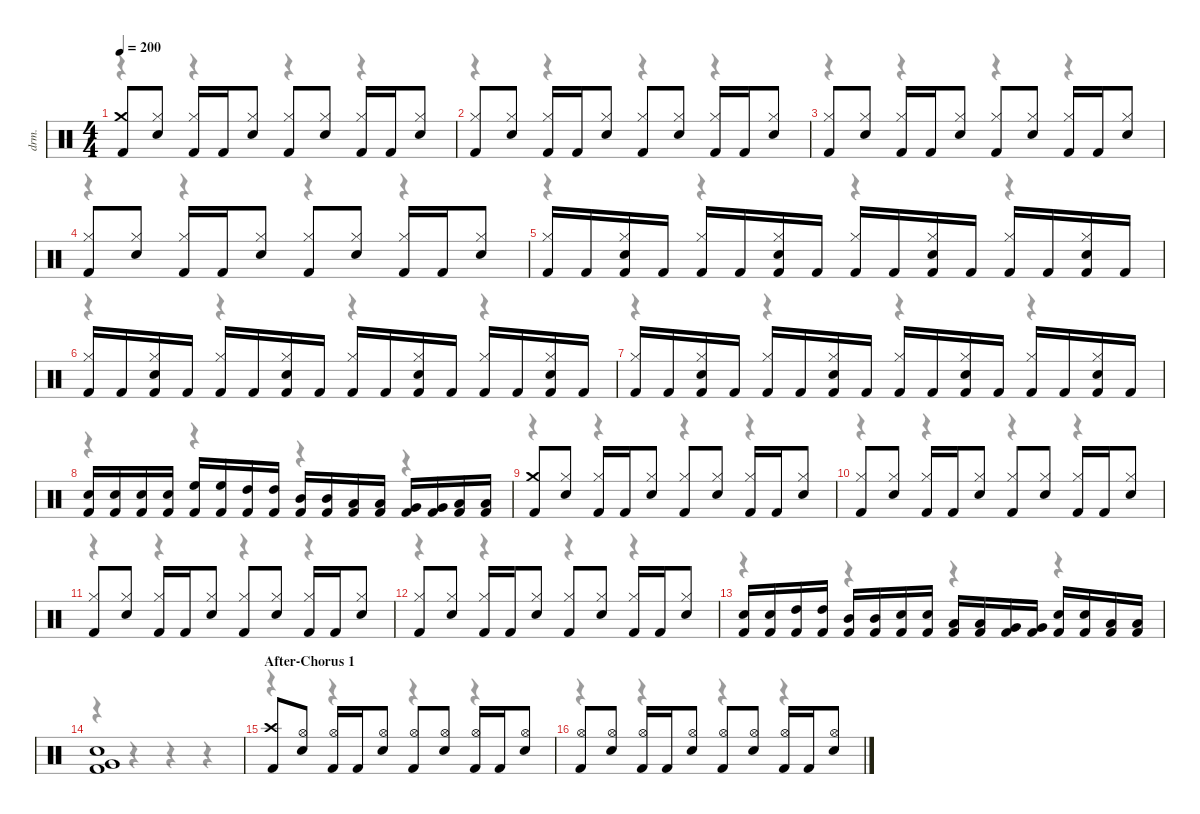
\defaultSystemsLayout 4
\hideDynamics
\bracketExtendMode nobrackets
\otherSystemsTrackNameOrientation horizontal
\track ("David Mackintosh (Drums)" "drm.") {instrument percussion}
\staff {score}
\articulation defaults
\voice
\ts (4 4)
\tempo 200
\clef neutral
\ks c
("Kick (hit) 2" "Crash medium (hit)").8{dy f} ("Snare (hit) 2" "Hi-Hat (closed)").8 ("Kick (hit) 2" "Hi-Hat (closed)").16 "Kick (hit) 2".16 ("Snare (hit) 2" "Hi-Hat (closed)").8 ("Kick (hit) 2" "Hi-Hat (closed)").8 ("Snare (hit) 2" "Hi-Hat (closed)").8 ("Kick (hit) 2" "Hi-Hat (closed)").16 "Kick (hit) 2".16 ("Snare (hit) 2" "Hi-Hat (closed)").8 |
("Kick (hit) 2" "Hi-Hat (closed)").8 ("Snare (hit) 2" "Hi-Hat (closed)").8 ("Kick (hit) 2" "Hi-Hat (closed)").16 "Kick (hit) 2".16 ("Snare (hit) 2" "Hi-Hat (closed)").8 ("Kick (hit) 2" "Hi-Hat (closed)").8 ("Snare (hit) 2" "Hi-Hat (closed)").8 ("Kick (hit) 2" "Hi-Hat (closed)").16 "Kick (hit) 2".16 ("Snare (hit) 2" "Hi-Hat (closed)").8 |
("Kick (hit) 2" "Hi-Hat (closed)").8 ("Snare (hit) 2" "Hi-Hat (closed)").8 ("Kick (hit) 2" "Hi-Hat (closed)").16 "Kick (hit) 2".16 ("Snare (hit) 2" "Hi-Hat (closed)").8 ("Kick (hit) 2" "Hi-Hat (closed)").8 ("Snare (hit) 2" "Hi-Hat (closed)").8 ("Kick (hit) 2" "Hi-Hat (closed)").16 "Kick (hit) 2".16 ("Snare (hit) 2" "Hi-Hat (closed)").8 |
("Kick (hit) 2" "Hi-Hat (closed)").8 ("Snare (hit) 2" "Hi-Hat (closed)").8 ("Kick (hit) 2" "Hi-Hat (closed)").16 "Kick (hit) 2".16 ("Snare (hit) 2" "Hi-Hat (closed)").8 ("Kick (hit) 2" "Hi-Hat (closed)").8 ("Snare (hit) 2" "Hi-Hat (closed)").8 ("Kick (hit) 2" "Hi-Hat (closed)").16 "Kick (hit) 2".16 ("Snare (hit) 2" "Hi-Hat (closed)").8 |
("Kick (hit) 2" "Hi-Hat (closed)").16 "Kick (hit) 2".16 ("Kick (hit) 2" "Snare (hit) 2" "Hi-Hat (closed)").16 "Kick (hit) 2".16 ("Kick (hit) 2" "Hi-Hat (closed)").16 "Kick (hit) 2".16 ("Kick (hit) 2" "Snare (hit) 2" "Hi-Hat (closed)").16 "Kick (hit) 2".16 ("Kick (hit) 2" "Hi-Hat (closed)").16 "Kick (hit) 2".16 ("Kick (hit) 2" "Snare (hit) 2" "Hi-Hat (closed)").16 "Kick (hit) 2".16 ("Kick (hit) 2" "Hi-Hat (closed)").16 "Kick (hit) 2".16 ("Kick (hit) 2" "Snare (hit) 2" "Hi-Hat (closed)").16 "Kick (hit) 2".16 |
("Kick (hit) 2" "Hi-Hat (closed)").16 "Kick (hit) 2".16 ("Kick (hit) 2" "Snare (hit) 2" "Hi-Hat (closed)").16 "Kick (hit) 2".16 ("Kick (hit) 2" "Hi-Hat (closed)").16 "Kick (hit) 2".16 ("Kick (hit) 2" "Snare (hit) 2" "Hi-Hat (closed)").16 "Kick (hit) 2".16 ("Kick (hit) 2" "Hi-Hat (closed)").16 "Kick (hit) 2".16 ("Kick (hit) 2" "Snare (hit) 2" "Hi-Hat (closed)").16 "Kick (hit) 2".16 ("Kick (hit) 2" "Hi-Hat (closed)").16 "Kick (hit) 2".16 ("Kick (hit) 2" "Snare (hit) 2" "Hi-Hat (closed)").16 "Kick (hit) 2".16 |
("Kick (hit) 2" "Hi-Hat (closed)").16 "Kick (hit) 2".16 ("Kick (hit) 2" "Snare (hit) 2" "Hi-Hat (closed)").16 "Kick (hit) 2".16 ("Kick (hit) 2" "Hi-Hat (closed)").16 "Kick (hit) 2".16 ("Kick (hit) 2" "Snare (hit) 2" "Hi-Hat (closed)").16 "Kick (hit) 2".16 ("Kick (hit) 2" "Hi-Hat (closed)").16 "Kick (hit) 2".16 ("Kick (hit) 2" "Snare (hit) 2" "Hi-Hat (closed)").16 "Kick (hit) 2".16 ("Kick (hit) 2" "Hi-Hat (closed)").16 "Kick (hit) 2".16 ("Kick (hit) 2" "Snare (hit) 2" "Hi-Hat (closed)").16 "Kick (hit) 2".16 |
("Kick (hit) 2" "Snare (hit) 2").16 ("Kick (hit) 2" "Snare (hit) 2").16 ("Kick (hit) 2" "Snare (hit) 2").16 ("Kick (hit) 2" "Snare (hit) 2").16 ("Kick (hit) 2" "High Floor Tom (hit)").16 ("Kick (hit) 2" "High Floor Tom (hit)").16 ("Kick (hit) 2" "High Tom (hit)").16 ("Kick (hit) 2" "High Tom (hit)").16 ("Kick (hit) 2" "Mid Tom (hit)").16 ("Kick (hit) 2" "Mid Tom (hit)").16 ("Kick (hit) 2" "Low Tom (hit)").16 ("Kick (hit) 2" "Low Tom (hit)").16 ("Kick (hit) 2" "Very Low Tom (hit)").16 ("Kick (hit) 2" "Very Low Tom (hit)").16 ("Kick (hit) 2" "Low Floor Tom (hit)").16 ("Kick (hit) 2" "Low Floor Tom (hit)").16 |
("Kick (hit) 2" "Crash medium (hit)").8 ("Snare (hit) 2" "Hi-Hat (closed)").8 ("Kick (hit) 2" "Hi-Hat (closed)").16 "Kick (hit) 2".16 ("Snare (hit) 2" "Hi-Hat (closed)").8 ("Kick (hit) 2" "Hi-Hat (closed)").8 ("Snare (hit) 2" "Hi-Hat (closed)").8 ("Kick (hit) 2" "Hi-Hat (closed)").16 "Kick (hit) 2".16 ("Snare (hit) 2" "Hi-Hat (closed)").8 |
("Kick (hit) 2" "Hi-Hat (closed)").8 ("Snare (hit) 2" "Hi-Hat (closed)").8 ("Kick (hit) 2" "Hi-Hat (closed)").16 "Kick (hit) 2".16 ("Snare (hit) 2" "Hi-Hat (closed)").8 ("Kick (hit) 2" "Hi-Hat (closed)").8 ("Snare (hit) 2" "Hi-Hat (closed)").8 ("Kick (hit) 2" "Hi-Hat (closed)").16 "Kick (hit) 2".16 ("Snare (hit) 2" "Hi-Hat (closed)").8 |
("Kick (hit) 2" "Hi-Hat (closed)").8 ("Snare (hit) 2" "Hi-Hat (closed)").8 ("Kick (hit) 2" "Hi-Hat (closed)").16 "Kick (hit) 2".16 ("Snare (hit) 2" "Hi-Hat (closed)").8 ("Kick (hit) 2" "Hi-Hat (closed)").8 ("Snare (hit) 2" "Hi-Hat (closed)").8 ("Kick (hit) 2" "Hi-Hat (closed)").16 "Kick (hit) 2".16 ("Snare (hit) 2" "Hi-Hat (closed)").8 |
("Kick (hit) 2" "Hi-Hat (closed)").8 ("Snare (hit) 2" "Hi-Hat (closed)").8 ("Kick (hit) 2" "Hi-Hat (closed)").16 "Kick (hit) 2".16 ("Snare (hit) 2" "Hi-Hat (closed)").8 ("Kick (hit) 2" "Hi-Hat (closed)").8 ("Snare (hit) 2" "Hi-Hat (closed)").8 ("Kick (hit) 2" "Hi-Hat (closed)").16 "Kick (hit) 2".16 ("Snare (hit) 2" "Hi-Hat (closed)").8 |
("Kick (hit) 2" "Snare (hit) 2").16 ("Kick (hit) 2" "Snare (hit) 2").16 ("Kick (hit) 2" "High Tom (hit)").16 ("Kick (hit) 2" "High Tom (hit)").16 ("Kick (hit) 2" "Mid Tom (hit)").16 ("Kick (hit) 2" "Mid Tom (hit)").16 ("Kick (hit) 2" "Snare (hit) 2").16 ("Kick (hit) 2" "Snare (hit) 2").16 ("Kick (hit) 2" "Low Tom (hit)").16 ("Kick (hit) 2" "Low Tom (hit)").16 ("Kick (hit) 2" "Very Low Tom (hit)").16 ("Kick (hit) 2" "Very Low Tom (hit)").16 ("Kick (hit) 2" "Snare (hit) 2").16 ("Kick (hit) 2" "Snare (hit) 2").16 ("Kick (hit) 2" "Low Floor Tom (hit)").16 ("Kick (hit) 2" "Low Floor Tom (hit)").16 |
("Kick (hit) 2" "Snare (hit) 2" "Very Low Tom (hit)").1 |
\section ("" "After-Chorus 1")
("Kick (hit) 2" "Crash high (hit)").8 ("Snare (hit) 2" "Hi-Hat (open)").8 ("Kick (hit) 2" "Hi-Hat (open)").16 "Kick (hit) 2".16 ("Snare (hit) 2" "Hi-Hat (open)").8 ("Kick (hit) 2" "Hi-Hat (open)").8 ("Snare (hit) 2" "Hi-Hat (open)").8 ("Kick (hit) 2" "Hi-Hat (open)").16 "Kick (hit) 2".16 ("Snare (hit) 2" "Hi-Hat (open)").8 |
("Kick (hit) 2" "Hi-Hat (open)").8 ("Snare (hit) 2" "Hi-Hat (open)").8 ("Kick (hit) 2" "Hi-Hat (open)").16 "Kick (hit) 2".16 ("Snare (hit) 2" "Hi-Hat (open)").8 ("Kick (hit) 2" "Hi-Hat (open)").8 ("Snare (hit) 2" "Hi-Hat (open)").8 ("Kick (hit) 2" "Hi-Hat (open)").16 "Kick (hit) 2".16 ("Snare (hit) 2" "Hi-Hat (open)").8
\voice
\clef neutral
\ottava regular
\simile none
\ks c
r.4{dy mf} r.4 r.4 r.4 |
r.4 r.4 r.4 r.4 |
r.4 r.4 r.4 r.4 |
r.4 r.4 r.4 r.4 |
r.4 r.4 r.4 r.4 |
r.4 r.4 r.4 r.4 |
r.4 r.4 r.4 r.4 |
r.4 r.4 r.4 r.4 |
r.4 r.4 r.4 r.4 |
r.4 r.4 r.4 r.4 |
r.4 r.4 r.4 r.4 |
r.4 r.4 r.4 r.4 |
r.4 r.4 r.4 r.4 |
r.4 r.4 r.4 r.4 |
r.4 r.4 r.4 r.4 |
r.4 r.4 r.4 r.4
